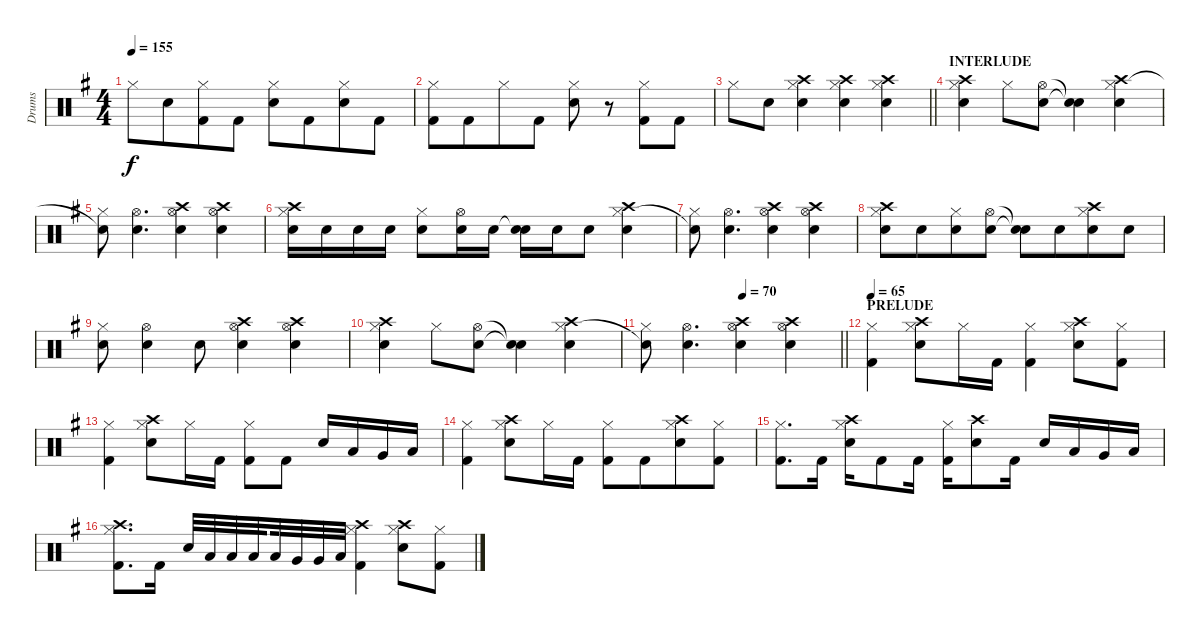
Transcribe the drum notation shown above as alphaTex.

\track ("Drums" "Drums") {instrument percussion}
\staff {score}
\articulation defaults
\ts (4 4)
\tempo 155
\clef neutral
\ks eminor "Hi-Hat (closed)".8{dy f} "Electric Snare (hit)".8{beam merge}
("Hi-Hat (closed)" "Kick (hit) 2").8 "Kick (hit) 2".8 ("Hi-Hat (closed)" "Electric Snare (hit)").8 "Kick (hit) 2".8{beam merge} ("Hi-Hat (closed)" "Electric Snare (hit)").8 "Kick (hit) 2".8 |
("Hi-Hat (closed)" "Kick (hit) 2").8 "Kick (hit) 2".8{beam merge} "Hi-Hat (closed)".8 "Kick (hit) 2".8 ("Hi-Hat (closed)" "Electric Snare (hit)").8 r.8 ("Hi-Hat (closed)" "Kick (hit) 2").8 "Kick (hit) 2".8 |
\barLineRight lightlight "Hi-Hat (closed)".8 "Electric Snare (hit)".8
("Crash high (hit)" "Hi-Hat (closed)" "Electric Snare (hit)").4 ("Crash high (hit)" "Hi-Hat (closed)" "Electric Snare (hit)").4 ("Crash high (hit)" "Hi-Hat (closed)" "Electric Snare (hit)").4 |
\section ("" "INTERLUDE")
("Crash high (hit)" "Hi-Hat (closed)" "Electric Snare (hit)").4 "Hi-Hat (closed)".8 ("Hi-Hat (open)" "Electric Snare (hit)").8 ("Snare (hit)"{t} "Snare (hit)"{t}).4 ("Crash high (hit)" "Hi-Hat (closed)" "Electric Snare (hit)").4 |
("Hi-Hat (closed)" "Snare (hit)"{t}).8 ("Hi-Hat (open)" "Electric Snare (hit)").4{d} ("Crash high (hit)" "Hi-Hat (open)" "Electric Snare (hit)").4 ("Crash high (hit)" "Hi-Hat (open)" "Electric Snare (hit)").4 |
("Crash high (hit)" "Hi-Hat (closed)" "Electric Snare (hit)").16 "Electric Snare (hit)".16 "Electric Snare (hit)".16 "Electric Snare (hit)".16 ("Hi-Hat (closed)" "Electric Snare (hit)").8 ("Hi-Hat (open)" "Electric Snare (hit)").16 "Electric Snare (hit)".16 ("Snare (hit)"{t} "Electric Snare (hit)").16 "Electric Snare (hit)".16 "Electric Snare (hit)".8 ("Crash high (hit)" "Hi-Hat (closed)" "Electric Snare (hit)").4 |
("Hi-Hat (closed)" "Snare (hit)"{t}).8 ("Hi-Hat (open)" "Electric Snare (hit)").4{d} ("Crash high (hit)" "Hi-Hat (open)" "Electric Snare (hit)").4 ("Crash high (hit)" "Hi-Hat (open)" "Electric Snare (hit)").4 |
("Crash high (hit)" "Hi-Hat (closed)" "Electric Snare (hit)").8 "Electric Snare (hit)".8{beam merge} ("Hi-Hat (closed)" "Electric Snare (hit)").8 ("Hi-Hat (open)" "Electric Snare (hit)").8 ("Snare (hit)"{t} "Snare (hit)"{t}).8 "Electric Snare (hit)".8{beam merge} ("Crash high (hit)" "Hi-Hat (closed)" "Electric Snare (hit)").8 "Electric Snare (hit)".8 |
("Hi-Hat (closed)" "Electric Snare (hit)").8 ("Hi-Hat (open)" "Electric Snare (hit)").4 "Electric Snare (hit)".8 ("Crash high (hit)" "Hi-Hat (open)" "Electric Snare (hit)").4 ("Crash high (hit)" "Hi-Hat (open)" "Electric Snare (hit)").4 |
("Crash high (hit)" "Hi-Hat (closed)" "Electric Snare (hit)").4 "Hi-Hat (closed)".8 ("Hi-Hat (open)" "Electric Snare (hit)").8 ("Snare (hit)"{t} "Snare (hit)"{t}).4 ("Crash high (hit)" "Hi-Hat (closed)" "Electric Snare (hit)").4 |
\tempo (70 0.5)
\barLineRight lightlight
("Hi-Hat (closed)" "Snare (hit)"{t}).8 ("Hi-Hat (open)" "Electric Snare (hit)").4{d} ("Crash high (hit)" "Hi-Hat (open)" "Electric Snare (hit)").4 ("Crash high (hit)" "Hi-Hat (open)" "Electric Snare (hit)").4 |
\section ("" "PRELUDE")
\tempo 65
("Hi-Hat (closed)" "Kick (hit) 2").4 ("Crash high (hit)" "Hi-Hat (closed)" "Electric Snare (hit)").8 "Hi-Hat (closed)".16 "Kick (hit) 2".16 ("Hi-Hat (closed)" "Kick (hit) 2").4 ("Crash high (hit)" "Hi-Hat (closed)" "Electric Snare (hit)").8 ("Hi-Hat (closed)" "Kick (hit) 2").8 |
("Hi-Hat (closed)" "Kick (hit) 2").4 ("Crash high (hit)" "Hi-Hat (closed)" "Electric Snare (hit)").8 "Hi-Hat (closed)".16 "Kick (hit) 2".16 ("Hi-Hat (closed)" "Kick (hit) 2").8 "Kick (hit) 2".8 "Electric Snare (hit)".16 "Low Tom (hit)".16 "Very Low Tom (hit)".16 "Low Floor Tom (hit)".16 |
("Hi-Hat (closed)" "Kick (hit) 2").4 ("Crash high (hit)" "Hi-Hat (closed)" "Electric Snare (hit)").8 "Hi-Hat (closed)".16 "Kick (hit) 2".16 ("Hi-Hat (closed)" "Kick (hit) 2").8 "Kick (hit) 2".8{beam merge} ("Crash high (hit)" "Hi-Hat (closed)" "Electric Snare (hit)").8 ("Hi-Hat (closed)" "Kick (hit) 2").8 |
("Hi-Hat (closed)" "Kick (hit) 2").8{d} "Kick (hit) 2".16 ("Crash high (hit)" "Hi-Hat (closed)" "Electric Snare (hit)").16 "Kick (hit) 2".8 "Kick (hit) 2".16 ("Hi-Hat (closed)" "Kick (hit) 2").16 ("Crash high (hit)" "Electric Snare (hit)").8 "Kick (hit) 2".16 "Electric Snare (hit)".16 "Low Tom (hit)".16 "Very Low Tom (hit)".16 "Low Floor Tom (hit)".16 |
("Crash high (hit)" "Hi-Hat (closed)" "Kick (hit) 2").8{d} "Kick (hit) 2".16 "Electric Snare (hit)".32 "Low Tom (hit)".32 "Low Tom (hit)".32 "Low Tom (hit)".32{beam splitsecondary} "Low Tom (hit)".32 "Very Low Tom (hit)".32 "Very Low Tom (hit)".32 "Low Floor Tom (hit)".32 ("Crash high (hit)" "Hi-Hat (closed)" "Kick (hit) 2").4 ("Crash high (hit)" "Hi-Hat (closed)" "Electric Snare (hit)").8 ("Hi-Hat (closed)" "Kick (hit) 2").8
